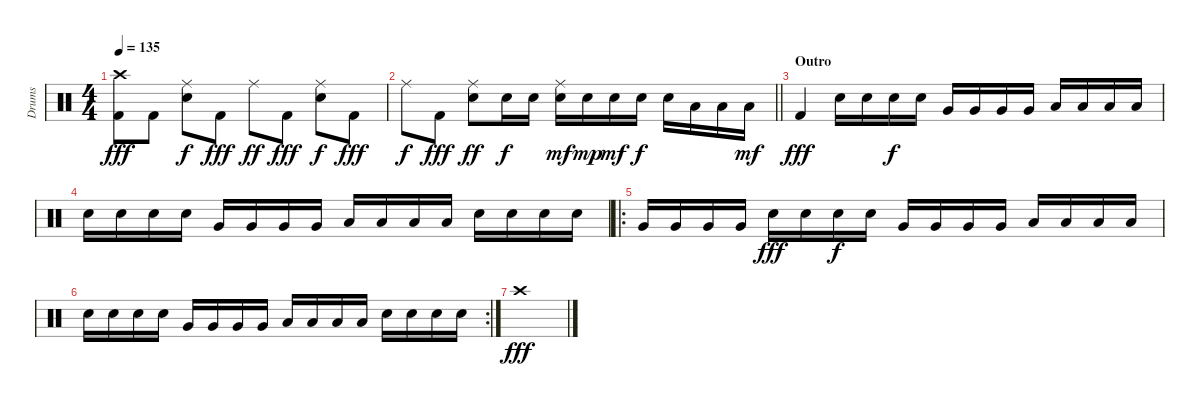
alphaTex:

\track ("Drums" "Drums") {instrument percussion}
\staff {score}
\articulation defaults
\ts (4 4)
\tempo 135
\clef neutral
\ks c
("Crash high (hit)" "Kick (hit) 2").8{dy fff} "Kick (hit) 2".8 ("Ride (middle)" "Electric Snare (hit)").8{dy f} "Kick (hit) 2".8{dy fff} "Ride (middle)".8{dy ff} "Kick (hit) 2".8{dy fff} ("Ride (middle)" "Electric Snare (hit)").8{dy f} "Kick (hit) 2".8{dy fff} |
\barLineRight lightlight "Ride (middle)".8{dy f} "Kick (hit) 2".8{dy fff}
("Ride (middle)" "Electric Snare (hit)").8{dy ff} "Electric Snare (hit)".16{dy f} "Electric Snare (hit)".16 ("Ride (middle)" "Electric Snare (hit)").16{dy mf} "Electric Snare (hit)".16{dy mp} "Electric Snare (hit)".16{dy mf} "Electric Snare (hit)".16{dy f} "Electric Snare (hit)".16 "Low Tom (hit)".16 "Low Tom (hit)".16 "Low Tom (hit)".16{dy mf} |
\section ("" "Outro")
"Kick (hit) 2".4{dy fff} "Electric Snare (hit)".16 "Electric Snare (hit)".16 "Electric Snare (hit)".16{dy f} "Electric Snare (hit)".16 "Very Low Tom (hit)".16 "Very Low Tom (hit)".16 "Very Low Tom (hit)".16 "Very Low Tom (hit)".16 "Low Floor Tom (hit)".16 "Low Floor Tom (hit)".16 "Low Floor Tom (hit)".16 "Low Floor Tom (hit)".16 |
"Electric Snare (hit)".16 "Electric Snare (hit)".16 "Electric Snare (hit)".16 "Electric Snare (hit)".16 "Very Low Tom (hit)".16 "Very Low Tom (hit)".16 "Very Low Tom (hit)".16 "Very Low Tom (hit)".16 "Low Floor Tom (hit)".16 "Low Floor Tom (hit)".16 "Low Floor Tom (hit)".16 "Low Floor Tom (hit)".16 "Electric Snare (hit)".16 "Electric Snare (hit)".16 "Electric Snare (hit)".16 "Electric Snare (hit)".16 |
\ro "Very Low Tom (hit)".16 "Very Low Tom (hit)".16 "Very Low Tom (hit)".16 "Very Low Tom (hit)".16 "Electric Snare (hit)".16{dy fff} "Electric Snare (hit)".16 "Electric Snare (hit)".16{dy f} "Electric Snare (hit)".16 "Very Low Tom (hit)".16 "Very Low Tom (hit)".16 "Very Low Tom (hit)".16 "Very Low Tom (hit)".16 "Low Floor Tom (hit)".16 "Low Floor Tom (hit)".16 "Low Floor Tom (hit)".16 "Low Floor Tom (hit)".16
|
\rc 2 "Electric Snare (hit)".16 "Electric Snare (hit)".16 "Electric Snare (hit)".16 "Electric Snare (hit)".16 "Very Low Tom (hit)".16 "Very Low Tom (hit)".16 "Very Low Tom (hit)".16 "Very Low Tom (hit)".16 "Low Floor Tom (hit)".16 "Low Floor Tom (hit)".16 "Low Floor Tom (hit)".16 "Low Floor Tom (hit)".16 "Electric Snare (hit)".16 "Electric Snare (hit)".16 "Electric Snare (hit)".16 "Electric Snare (hit)".16
|
"Crash high (hit)".1{dy fff}
